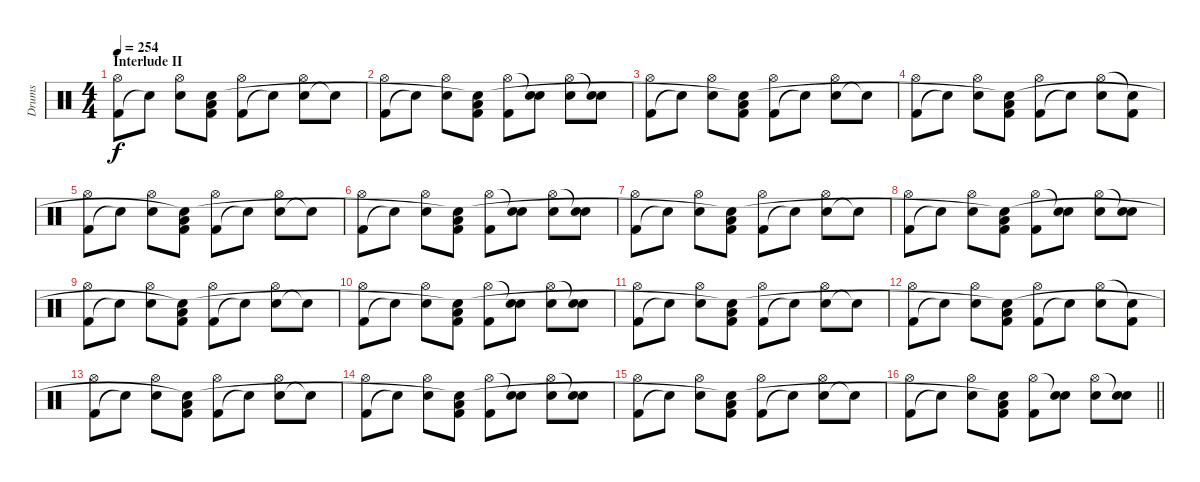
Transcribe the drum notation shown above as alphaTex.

\track ("Drums" "Drums") {instrument percussion}
\staff {score}
\articulation defaults
\ts (4 4)
\section ("" "Interlude II")
\tempo 254
\clef neutral
\ks c
("Kick (hit) 2" "Hi-Hat (open)").8{dy f} "Snare (hit)"{t}.8 ("Electric Snare (hit)" "Hi-Hat (open)").8 ("Low Floor Tom (hit)" "Kick (hit) 2" "Snare (hit)"{t}).8 ("Kick (hit) 2" "Hi-Hat (open)").8 "Snare (hit)"{t}.8 ("Electric Snare (hit)" "Hi-Hat (open)").8 "Snare (hit)"{t}.8 |
("Kick (hit) 2" "Hi-Hat (open)").8 "Snare (hit)"{t}.8 ("Electric Snare (hit)" "Hi-Hat (open)").8 ("Low Floor Tom (hit)" "Kick (hit) 2" "Snare (hit)"{t}).8 ("Kick (hit) 2" "Hi-Hat (open)").8 ("Electric Snare (hit)" "Snare (hit)"{t}).8 ("Electric Snare (hit)" "Hi-Hat (open)").8 ("Electric Snare (hit)" "Snare (hit)"{t}).8 |
("Kick (hit) 2" "Hi-Hat (open)").8 "Snare (hit)"{t}.8 ("Electric Snare (hit)" "Hi-Hat (open)").8 ("Low Floor Tom (hit)" "Kick (hit) 2" "Snare (hit)"{t}).8 ("Kick (hit) 2" "Hi-Hat (open)").8 "Snare (hit)"{t}.8 ("Electric Snare (hit)" "Hi-Hat (open)").8 "Snare (hit)"{t}.8 |
("Kick (hit) 2" "Hi-Hat (open)").8 "Snare (hit)"{t}.8 ("Electric Snare (hit)" "Hi-Hat (open)").8 ("Low Floor Tom (hit)" "Kick (hit) 2" "Snare (hit)"{t}).8 ("Kick (hit) 2" "Hi-Hat (open)").8 "Snare (hit)"{t}.8 ("Electric Snare (hit)" "Hi-Hat (open)").8 ("Kick (hit) 2" "Snare (hit)"{t}).8 |
("Kick (hit) 2" "Hi-Hat (open)").8 "Snare (hit)"{t}.8 ("Electric Snare (hit)" "Hi-Hat (open)").8 ("Low Floor Tom (hit)" "Kick (hit) 2" "Snare (hit)"{t}).8 ("Kick (hit) 2" "Hi-Hat (open)").8 "Snare (hit)"{t}.8 ("Electric Snare (hit)" "Hi-Hat (open)").8 "Snare (hit)"{t}.8 |
("Kick (hit) 2" "Hi-Hat (open)").8 "Snare (hit)"{t}.8 ("Electric Snare (hit)" "Hi-Hat (open)").8 ("Low Floor Tom (hit)" "Kick (hit) 2" "Snare (hit)"{t}).8 ("Kick (hit) 2" "Hi-Hat (open)").8 ("Electric Snare (hit)" "Snare (hit)"{t}).8 ("Electric Snare (hit)" "Hi-Hat (open)").8 ("Electric Snare (hit)" "Snare (hit)"{t}).8 |
("Kick (hit) 2" "Hi-Hat (open)").8 "Snare (hit)"{t}.8 ("Electric Snare (hit)" "Hi-Hat (open)").8 ("Low Floor Tom (hit)" "Kick (hit) 2" "Snare (hit)"{t}).8 ("Kick (hit) 2" "Hi-Hat (open)").8 "Snare (hit)"{t}.8 ("Electric Snare (hit)" "Hi-Hat (open)").8 "Snare (hit)"{t}.8 |
("Kick (hit) 2" "Hi-Hat (open)").8 "Snare (hit)"{t}.8 ("Electric Snare (hit)" "Hi-Hat (open)").8 ("Low Floor Tom (hit)" "Kick (hit) 2" "Snare (hit)"{t}).8 ("Kick (hit) 2" "Hi-Hat (open)").8 ("Electric Snare (hit)" "Snare (hit)"{t}).8 ("Electric Snare (hit)" "Hi-Hat (open)").8 ("Electric Snare (hit)" "Snare (hit)"{t}).8 |
("Kick (hit) 2" "Hi-Hat (open)").8 "Snare (hit)"{t}.8 ("Electric Snare (hit)" "Hi-Hat (open)").8 ("Low Floor Tom (hit)" "Kick (hit) 2" "Snare (hit)"{t}).8 ("Kick (hit) 2" "Hi-Hat (open)").8 "Snare (hit)"{t}.8 ("Electric Snare (hit)" "Hi-Hat (open)").8 "Snare (hit)"{t}.8 |
("Kick (hit) 2" "Hi-Hat (open)").8 "Snare (hit)"{t}.8 ("Electric Snare (hit)" "Hi-Hat (open)").8 ("Low Floor Tom (hit)" "Kick (hit) 2" "Snare (hit)"{t}).8 ("Kick (hit) 2" "Hi-Hat (open)").8 ("Electric Snare (hit)" "Snare (hit)"{t}).8 ("Electric Snare (hit)" "Hi-Hat (open)").8 ("Electric Snare (hit)" "Snare (hit)"{t}).8 |
("Kick (hit) 2" "Hi-Hat (open)").8 "Snare (hit)"{t}.8 ("Electric Snare (hit)" "Hi-Hat (open)").8 ("Low Floor Tom (hit)" "Kick (hit) 2" "Snare (hit)"{t}).8 ("Kick (hit) 2" "Hi-Hat (open)").8 "Snare (hit)"{t}.8 ("Electric Snare (hit)" "Hi-Hat (open)").8 "Snare (hit)"{t}.8 |
("Kick (hit) 2" "Hi-Hat (open)").8 "Snare (hit)"{t}.8 ("Electric Snare (hit)" "Hi-Hat (open)").8 ("Low Floor Tom (hit)" "Kick (hit) 2" "Snare (hit)"{t}).8 ("Kick (hit) 2" "Hi-Hat (open)").8 "Snare (hit)"{t}.8 ("Electric Snare (hit)" "Hi-Hat (open)").8 ("Kick (hit) 2" "Snare (hit)"{t}).8 |
("Kick (hit) 2" "Hi-Hat (open)").8 "Snare (hit)"{t}.8 ("Electric Snare (hit)" "Hi-Hat (open)").8 ("Low Floor Tom (hit)" "Kick (hit) 2" "Snare (hit)"{t}).8 ("Kick (hit) 2" "Hi-Hat (open)").8 "Snare (hit)"{t}.8 ("Electric Snare (hit)" "Hi-Hat (open)").8 "Snare (hit)"{t}.8 |
("Kick (hit) 2" "Hi-Hat (open)").8 "Snare (hit)"{t}.8 ("Electric Snare (hit)" "Hi-Hat (open)").8 ("Low Floor Tom (hit)" "Kick (hit) 2" "Snare (hit)"{t}).8 ("Kick (hit) 2" "Hi-Hat (open)").8 ("Electric Snare (hit)" "Snare (hit)"{t}).8 ("Electric Snare (hit)" "Hi-Hat (open)").8 ("Electric Snare (hit)" "Snare (hit)"{t}).8 |
("Kick (hit) 2" "Hi-Hat (open)").8 "Snare (hit)"{t}.8 ("Electric Snare (hit)" "Hi-Hat (open)").8 ("Low Floor Tom (hit)" "Kick (hit) 2" "Snare (hit)"{t}).8 ("Kick (hit) 2" "Hi-Hat (open)").8 "Snare (hit)"{t}.8 ("Electric Snare (hit)" "Hi-Hat (open)").8 "Snare (hit)"{t}.8 |
\barLineRight lightlight
("Kick (hit) 2" "Hi-Hat (open)").8 "Snare (hit)"{t}.8 ("Electric Snare (hit)" "Hi-Hat (open)").8 ("Low Floor Tom (hit)" "Kick (hit) 2" "Snare (hit)"{t}).8 ("Kick (hit) 2" "Hi-Hat (open)").8 ("Electric Snare (hit)" "Snare (hit)"{t}).8 ("Electric Snare (hit)" "Hi-Hat (open)").8 ("Electric Snare (hit)" "Snare (hit)"{t}).8
